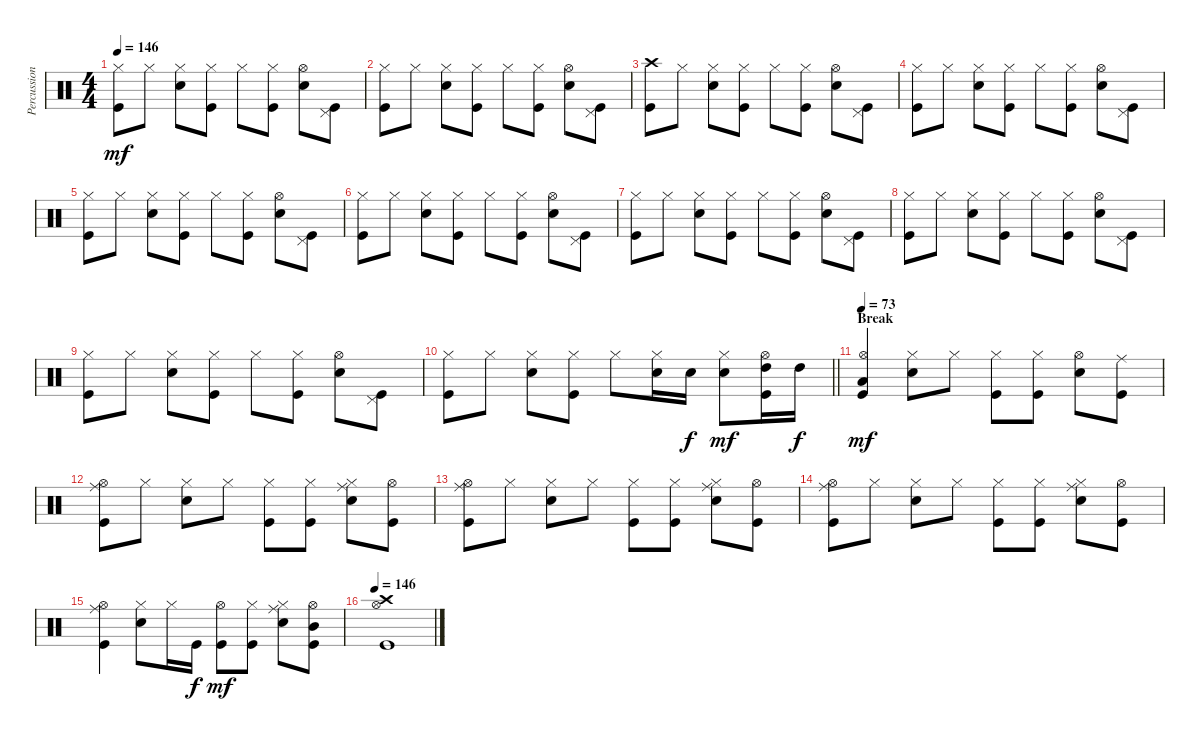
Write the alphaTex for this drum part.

\track ("Percussion" "Percussion") {instrument percussion}
\staff {score}
\articulation defaults
\ts (4 4)
\tempo 146
\clef neutral
\ks c
("Hi-Hat (closed)" "Kick (hit)").8{dy mf} "Hi-Hat (closed)".8 ("Hi-Hat (closed)" "Snare (hit) 2").8 ("Hi-Hat (closed)" "Kick (hit)").8 "Hi-Hat (closed)".8 ("Hi-Hat (closed)" "Kick (hit)").8 ("Hi-Hat (open)" "Snare (hit) 2").8 ("Pedal Hi-Hat (hit)" "Kick (hit)").8 |
("Hi-Hat (closed)" "Kick (hit)").8 "Hi-Hat (closed)".8 ("Hi-Hat (closed)" "Snare (hit) 2").8 ("Hi-Hat (closed)" "Kick (hit)").8 "Hi-Hat (closed)".8 ("Hi-Hat (closed)" "Kick (hit)").8 ("Hi-Hat (open)" "Snare (hit) 2").8 ("Pedal Hi-Hat (hit)" "Kick (hit)").8 |
("Crash high (hit)" "Kick (hit)").8 "Hi-Hat (closed)".8 ("Hi-Hat (closed)" "Snare (hit) 2").8 ("Hi-Hat (closed)" "Kick (hit)").8 "Hi-Hat (closed)".8 ("Hi-Hat (closed)" "Kick (hit)").8 ("Hi-Hat (open)" "Snare (hit) 2").8 ("Pedal Hi-Hat (hit)" "Kick (hit)").8 |
("Hi-Hat (closed)" "Kick (hit)").8 "Hi-Hat (closed)".8 ("Hi-Hat (closed)" "Snare (hit) 2").8 ("Hi-Hat (closed)" "Kick (hit)").8 "Hi-Hat (closed)".8 ("Hi-Hat (closed)" "Kick (hit)").8 ("Hi-Hat (open)" "Snare (hit) 2").8 ("Pedal Hi-Hat (hit)" "Kick (hit)").8 |
("Hi-Hat (closed)" "Kick (hit)").8 "Hi-Hat (closed)".8 ("Hi-Hat (closed)" "Snare (hit) 2").8 ("Hi-Hat (closed)" "Kick (hit)").8 "Hi-Hat (closed)".8 ("Hi-Hat (closed)" "Kick (hit)").8 ("Hi-Hat (open)" "Snare (hit) 2").8 ("Pedal Hi-Hat (hit)" "Kick (hit)").8 |
("Hi-Hat (closed)" "Kick (hit)").8 "Hi-Hat (closed)".8 ("Hi-Hat (closed)" "Snare (hit) 2").8 ("Hi-Hat (closed)" "Kick (hit)").8 "Hi-Hat (closed)".8 ("Hi-Hat (closed)" "Kick (hit)").8 ("Hi-Hat (open)" "Snare (hit) 2").8 ("Pedal Hi-Hat (hit)" "Kick (hit)").8 |
("Hi-Hat (closed)" "Kick (hit)").8 "Hi-Hat (closed)".8 ("Hi-Hat (closed)" "Snare (hit) 2").8 ("Hi-Hat (closed)" "Kick (hit)").8 "Hi-Hat (closed)".8 ("Hi-Hat (closed)" "Kick (hit)").8 ("Hi-Hat (open)" "Snare (hit) 2").8 ("Pedal Hi-Hat (hit)" "Kick (hit)").8 |
("Hi-Hat (closed)" "Kick (hit)").8 "Hi-Hat (closed)".8 ("Hi-Hat (closed)" "Snare (hit) 2").8 ("Hi-Hat (closed)" "Kick (hit)").8 "Hi-Hat (closed)".8 ("Hi-Hat (closed)" "Kick (hit)").8 ("Hi-Hat (open)" "Snare (hit) 2").8 ("Pedal Hi-Hat (hit)" "Kick (hit)").8 |
("Hi-Hat (closed)" "Kick (hit)").8 "Hi-Hat (closed)".8 ("Hi-Hat (closed)" "Snare (hit) 2").8 ("Hi-Hat (closed)" "Kick (hit)").8 "Hi-Hat (closed)".8 ("Hi-Hat (closed)" "Kick (hit)").8 ("Hi-Hat (open)" "Snare (hit) 2").8 ("Pedal Hi-Hat (hit)" "Kick (hit)").8 |
\barLineRight lightlight
("Hi-Hat (closed)" "Kick (hit)").8 "Hi-Hat (closed)".8 ("Hi-Hat (closed)" "Snare (hit) 2").8 ("Hi-Hat (closed)" "Kick (hit)").8 "Hi-Hat (closed)".8 ("Hi-Hat (closed)" "Snare (hit) 2").16 "Snare (hit) 2".16{dy f} ("Hi-Hat (closed)" "Snare (hit) 2").8{dy mf} ("Hi-Hat (open)" "High Tom (hit)" "Kick (hit)").16 "High Tom (hit)".16{dy f} |
\section ("" "Break")
\tempo 73
("Hi-Hat (open)" "Low Tom (hit)" "Kick (hit)").4{dy mf} ("Hi-Hat (closed)" "Snare (hit) 2").8 "Hi-Hat (closed)".8 ("Hi-Hat (closed)" "Kick (hit)").8 ("Hi-Hat (closed)" "Kick (hit)").8 ("Hi-Hat (open)" "Snare (hit) 2").8 ("Ride (middle)" "Kick (hit)").8 |
("Hi-Hat (open)" "Ride (middle)" "Kick (hit)").8 "Hi-Hat (closed)".8 ("Hi-Hat (closed)" "Snare (hit) 2").8 "Hi-Hat (closed)".8 ("Hi-Hat (closed)" "Kick (hit)").8 ("Hi-Hat (closed)" "Kick (hit)").8 ("Hi-Hat (closed)" "Ride (middle)" "Snare (hit) 2").8 ("Hi-Hat (open)" "Kick (hit)").8 |
("Hi-Hat (open)" "Ride (middle)" "Kick (hit)").8 "Hi-Hat (closed)".8 ("Hi-Hat (closed)" "Snare (hit) 2").8 "Hi-Hat (closed)".8 ("Hi-Hat (closed)" "Kick (hit)").8 ("Hi-Hat (closed)" "Kick (hit)").8 ("Hi-Hat (closed)" "Ride (middle)" "Snare (hit) 2").8 ("Hi-Hat (open)" "Kick (hit)").8 |
("Hi-Hat (open)" "Ride (middle)" "Kick (hit)").8 "Hi-Hat (closed)".8 ("Hi-Hat (closed)" "Snare (hit) 2").8 "Hi-Hat (closed)".8 ("Hi-Hat (closed)" "Kick (hit)").8 ("Hi-Hat (closed)" "Kick (hit)").8 ("Hi-Hat (closed)" "Ride (middle)" "Snare (hit) 2").8 ("Hi-Hat (open)" "Kick (hit)").8 |
("Hi-Hat (open)" "Ride (middle)" "Kick (hit)").4 ("Hi-Hat (closed)" "Snare (hit) 2").8 "Hi-Hat (closed)".16 "Kick (hit)".16{dy f} ("Hi-Hat (open)" "Kick (hit)").8{dy mf} ("Hi-Hat (closed)" "Kick (hit)").8 ("Hi-Hat (closed)" "Ride (middle)" "Snare (hit) 2").8 ("Hi-Hat (open)" "Mid Tom (hit)" "Kick (hit)").8 |
\tempo 146
("Crash high (hit)" "Hi-Hat (open)" "Kick (hit)").1
